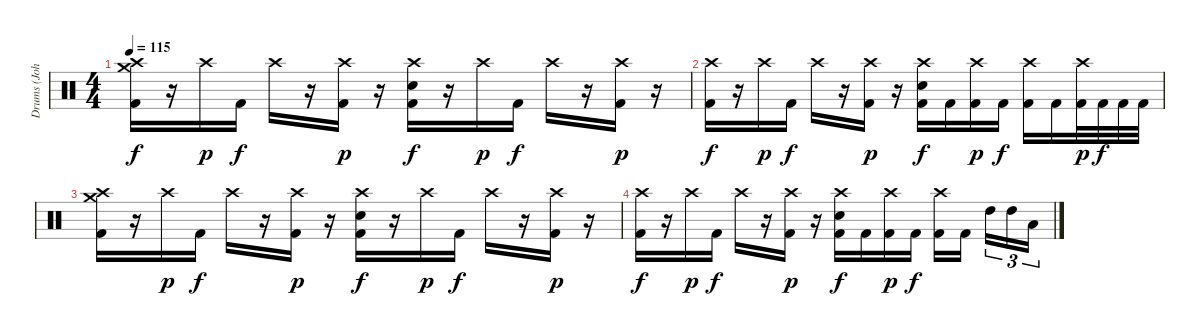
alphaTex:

\track ("Drums (Johno)" "Drums (Joh") {instrument percussion}
\staff {score}
\articulation defaults
\ts (4 4)
\tempo 115
\clef neutral
\ks c
("Crash high (hit)" "Crash medium (hit)" "Kick (hit) 2").16{dy f} r.16 "Crash high (hit)".16{dy p} "Kick (hit) 2".16{dy f} "Crash high (hit)".16 r.16 ("Crash high (hit)" "Kick (hit) 2").16{dy p} r.16 ("Crash high (hit)" "Electric Snare (hit)" "Kick (hit) 2").16{dy f} r.16 "Crash high (hit)".16{dy p} "Kick (hit) 2".16{dy f} "Crash high (hit)".16 r.16 ("Crash high (hit)" "Kick (hit) 2").16{dy p} r.16 |
("Crash high (hit)" "Kick (hit) 2").16{dy f} r.16 "Crash high (hit)".16{dy p} "Kick (hit) 2".16{dy f} "Crash high (hit)".16 r.16 ("Crash high (hit)" "Kick (hit) 2").16{dy p} r.16 ("Crash high (hit)" "Electric Snare (hit)" "Kick (hit) 2").16{dy f} "Kick (hit) 2".16 ("Crash high (hit)" "Kick (hit) 2").16{dy p} "Kick (hit) 2".16{dy f} ("Crash high (hit)" "Kick (hit) 2").16 "Kick (hit) 2".16 ("Crash high (hit)" "Kick (hit) 2").32{dy p} "Kick (hit) 2".32{dy f} "Kick (hit) 2".32 "Kick (hit) 2".32 |
("Crash high (hit)" "Crash medium (hit)" "Kick (hit) 2").16 r.16 "Crash high (hit)".16{dy p} "Kick (hit) 2".16{dy f} "Crash high (hit)".16 r.16 ("Crash high (hit)" "Kick (hit) 2").16{dy p} r.16 ("Crash high (hit)" "Electric Snare (hit)" "Kick (hit) 2").16{dy f} r.16 "Crash high (hit)".16{dy p} "Kick (hit) 2".16{dy f} "Crash high (hit)".16 r.16 ("Crash high (hit)" "Kick (hit) 2").16{dy p} r.16 |
("Crash high (hit)" "Kick (hit) 2").16{dy f} r.16 "Crash high (hit)".16{dy p} "Kick (hit) 2".16{dy f} "Crash high (hit)".16 r.16 ("Crash high (hit)" "Kick (hit) 2").16{dy p} r.16 ("Crash high (hit)" "Electric Snare (hit)" "Kick (hit) 2").16{dy f} "Kick (hit) 2".16 ("Crash high (hit)" "Kick (hit) 2").16{dy p} "Kick (hit) 2".16{dy f} ("Crash high (hit)" "Kick (hit) 2").16 "Kick (hit) 2".16{beam splitsecondary} "High Tom (hit)".16{tu (3 2)} "High Tom (hit)".16{tu (3 2)} "Low Floor Tom (hit)".16{tu (3 2)}
